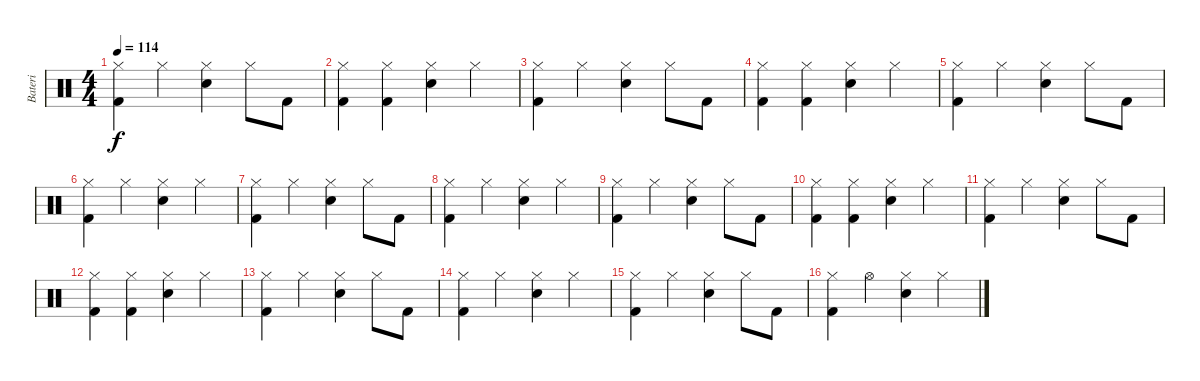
\track ("Bateri" "Bateri") {instrument percussion}
\staff {score}
\articulation defaults
\ts (4 4)
\tempo 114
\clef neutral
\ks c
("Hi-Hat (closed)" "Kick (hit) 2").4{dy f} "Hi-Hat (closed)".4 ("Hi-Hat (closed)" "Snare (hit) 2").4 "Hi-Hat (closed)".8 "Kick (hit) 2".8 |
("Hi-Hat (closed)" "Kick (hit) 2").4 ("Hi-Hat (closed)" "Kick (hit) 2").4 ("Hi-Hat (closed)" "Snare (hit) 2").4 "Hi-Hat (closed)".4 |
("Hi-Hat (closed)" "Kick (hit) 2").4 "Hi-Hat (closed)".4 ("Hi-Hat (closed)" "Snare (hit) 2").4 "Hi-Hat (closed)".8 "Kick (hit) 2".8 |
("Hi-Hat (closed)" "Kick (hit) 2").4 ("Hi-Hat (closed)" "Kick (hit) 2").4 ("Hi-Hat (closed)" "Snare (hit) 2").4 "Hi-Hat (closed)".4 |
("Hi-Hat (closed)" "Kick (hit) 2").4 "Hi-Hat (closed)".4 ("Hi-Hat (closed)" "Snare (hit) 2").4 "Hi-Hat (closed)".8 "Kick (hit) 2".8 |
("Hi-Hat (closed)" "Kick (hit) 2").4 "Hi-Hat (closed)".4 ("Hi-Hat (closed)" "Snare (hit) 2").4 "Hi-Hat (closed)".4 |
("Hi-Hat (closed)" "Kick (hit) 2").4 "Hi-Hat (closed)".4 ("Hi-Hat (closed)" "Snare (hit) 2").4 "Hi-Hat (closed)".8 "Kick (hit) 2".8 |
("Hi-Hat (closed)" "Kick (hit) 2").4 "Hi-Hat (closed)".4 ("Hi-Hat (closed)" "Snare (hit) 2").4 "Hi-Hat (closed)".4 |
("Hi-Hat (closed)" "Kick (hit) 2").4 "Hi-Hat (closed)".4 ("Hi-Hat (closed)" "Snare (hit) 2").4 "Hi-Hat (closed)".8 "Kick (hit) 2".8 |
("Hi-Hat (closed)" "Kick (hit) 2").4 ("Hi-Hat (closed)" "Kick (hit) 2").4 ("Hi-Hat (closed)" "Snare (hit) 2").4 "Hi-Hat (closed)".4 |
("Hi-Hat (closed)" "Kick (hit) 2").4 "Hi-Hat (closed)".4 ("Hi-Hat (closed)" "Snare (hit) 2").4 "Hi-Hat (closed)".8 "Kick (hit) 2".8 |
("Hi-Hat (closed)" "Kick (hit) 2").4 ("Hi-Hat (closed)" "Kick (hit) 2").4 ("Hi-Hat (closed)" "Snare (hit) 2").4 "Hi-Hat (closed)".4 |
("Hi-Hat (closed)" "Kick (hit) 2").4 "Hi-Hat (closed)".4 ("Hi-Hat (closed)" "Snare (hit) 2").4 "Hi-Hat (closed)".8 "Kick (hit) 2".8 |
("Hi-Hat (closed)" "Kick (hit) 2").4 "Hi-Hat (closed)".4 ("Hi-Hat (closed)" "Snare (hit) 2").4 "Hi-Hat (closed)".4 |
("Hi-Hat (closed)" "Kick (hit) 2").4 "Hi-Hat (closed)".4 ("Hi-Hat (closed)" "Snare (hit) 2").4 "Hi-Hat (closed)".8 "Kick (hit) 2".8 |
("Hi-Hat (closed)" "Kick (hit) 2").4 "Hi-Hat (open)".4 ("Hi-Hat (closed)" "Snare (hit) 2").4 "Hi-Hat (closed)".4
